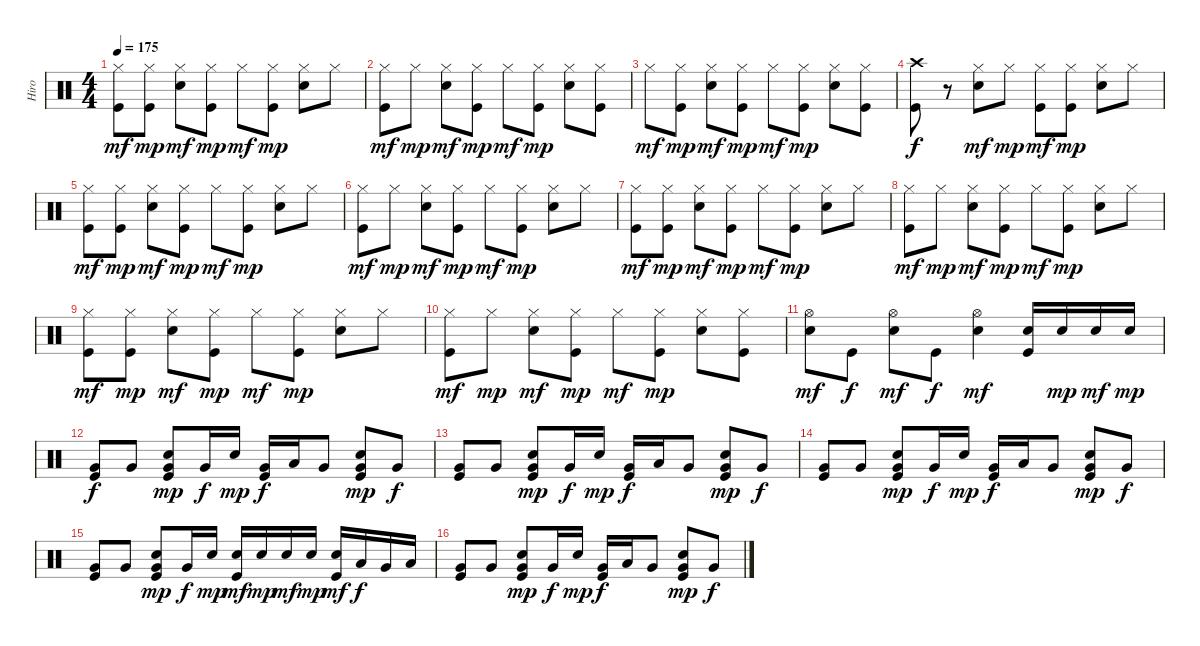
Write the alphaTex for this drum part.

\track ("Hiro" "Hiro") {instrument percussion}
\staff {score}
\articulation defaults
\ts (4 4)
\tempo 175
\clef neutral
\ks c
("Hi-Hat (closed)" "Kick (hit)").8{dy mf} ("Hi-Hat (closed)" "Kick (hit)").8{dy mp} ("Hi-Hat (closed)" "Electric Snare (hit)").8{dy mf} ("Hi-Hat (closed)" "Kick (hit)").8{dy mp} "Hi-Hat (closed)".8{dy mf} ("Hi-Hat (closed)" "Kick (hit)").8{dy mp} ("Hi-Hat (closed)" "Electric Snare (hit)").8 "Hi-Hat (closed)".8 |
("Hi-Hat (closed)" "Kick (hit)").8{dy mf} "Hi-Hat (closed)".8{dy mp} ("Hi-Hat (closed)" "Electric Snare (hit)").8{dy mf} ("Hi-Hat (closed)" "Kick (hit)").8{dy mp} "Hi-Hat (closed)".8{dy mf} ("Hi-Hat (closed)" "Kick (hit)").8{dy mp} ("Hi-Hat (closed)" "Electric Snare (hit)").8 ("Hi-Hat (closed)" "Kick (hit)").8 |
"Hi-Hat (closed)".8{dy mf} ("Hi-Hat (closed)" "Kick (hit)").8{dy mp} ("Hi-Hat (closed)" "Electric Snare (hit)").8{dy mf} ("Hi-Hat (closed)" "Kick (hit)").8{dy mp} "Hi-Hat (closed)".8{dy mf} ("Hi-Hat (closed)" "Kick (hit)").8{dy mp} ("Hi-Hat (closed)" "Electric Snare (hit)").8 ("Hi-Hat (closed)" "Kick (hit)").8 |
("Crash high (hit)" "Kick (hit)").8{dy f} r.8 ("Hi-Hat (closed)" "Electric Snare (hit)").8{dy mf} "Hi-Hat (closed)".8{dy mp} ("Hi-Hat (closed)" "Kick (hit)").8{dy mf} ("Hi-Hat (closed)" "Kick (hit)").8{dy mp} ("Hi-Hat (closed)" "Electric Snare (hit)").8 "Hi-Hat (closed)".8 |
("Hi-Hat (closed)" "Kick (hit)").8{dy mf} ("Hi-Hat (closed)" "Kick (hit)").8{dy mp} ("Hi-Hat (closed)" "Electric Snare (hit)").8{dy mf} ("Hi-Hat (closed)" "Kick (hit)").8{dy mp} "Hi-Hat (closed)".8{dy mf} ("Hi-Hat (closed)" "Kick (hit)").8{dy mp} ("Hi-Hat (closed)" "Electric Snare (hit)").8 "Hi-Hat (closed)".8 |
("Hi-Hat (closed)" "Kick (hit)").8{dy mf} "Hi-Hat (closed)".8{dy mp} ("Hi-Hat (closed)" "Electric Snare (hit)").8{dy mf} ("Hi-Hat (closed)" "Kick (hit)").8{dy mp} "Hi-Hat (closed)".8{dy mf} ("Hi-Hat (closed)" "Kick (hit)").8{dy mp} ("Hi-Hat (closed)" "Electric Snare (hit)").8 "Hi-Hat (closed)".8 |
("Hi-Hat (closed)" "Kick (hit)").8{dy mf} ("Hi-Hat (closed)" "Kick (hit)").8{dy mp} ("Hi-Hat (closed)" "Electric Snare (hit)").8{dy mf} ("Hi-Hat (closed)" "Kick (hit)").8{dy mp} "Hi-Hat (closed)".8{dy mf} ("Hi-Hat (closed)" "Kick (hit)").8{dy mp} ("Hi-Hat (closed)" "Electric Snare (hit)").8 "Hi-Hat (closed)".8 |
("Hi-Hat (closed)" "Kick (hit)").8{dy mf} "Hi-Hat (closed)".8{dy mp} ("Hi-Hat (closed)" "Electric Snare (hit)").8{dy mf} ("Hi-Hat (closed)" "Kick (hit)").8{dy mp} "Hi-Hat (closed)".8{dy mf} ("Hi-Hat (closed)" "Kick (hit)").8{dy mp} ("Hi-Hat (closed)" "Electric Snare (hit)").8 "Hi-Hat (closed)".8 |
("Hi-Hat (closed)" "Kick (hit)").8{dy mf} ("Hi-Hat (closed)" "Kick (hit)").8{dy mp} ("Hi-Hat (closed)" "Electric Snare (hit)").8{dy mf} ("Hi-Hat (closed)" "Kick (hit)").8{dy mp} "Hi-Hat (closed)".8{dy mf} ("Hi-Hat (closed)" "Kick (hit)").8{dy mp} ("Hi-Hat (closed)" "Electric Snare (hit)").8 "Hi-Hat (closed)".8 |
("Hi-Hat (closed)" "Kick (hit)").8{dy mf} "Hi-Hat (closed)".8{dy mp} ("Hi-Hat (closed)" "Electric Snare (hit)").8{dy mf} ("Hi-Hat (closed)" "Kick (hit)").8{dy mp} "Hi-Hat (closed)".8{dy mf} ("Hi-Hat (closed)" "Kick (hit)").8{dy mp} ("Hi-Hat (closed)" "Electric Snare (hit)").8 ("Hi-Hat (closed)" "Kick (hit)").8 |
("Electric Snare (hit)" "Hi-Hat (open)").8{dy mf} "Kick (hit)".8{dy f} ("Electric Snare (hit)" "Hi-Hat (open)").8{dy mf} "Kick (hit)".8{dy f} ("Electric Snare (hit)" "Hi-Hat (open)").4{dy mf} ("Electric Snare (hit)" "Kick (hit)").16 "Electric Snare (hit)".16{dy mp} "Electric Snare (hit)".16{dy mf} "Electric Snare (hit)".16{dy mp} |
("Kick (hit)" "Very Low Tom (hit)").8{dy f} "Very Low Tom (hit)".8 ("Very Low Tom (hit)" "Electric Snare (hit)" "Kick (hit)").8{dy mp} "Very Low Tom (hit)".16{dy f} "Electric Snare (hit)".16{dy mp} ("Very Low Tom (hit)" "Kick (hit)").16{dy f} "Low Tom (hit)".16 "Very Low Tom (hit)".8 ("Very Low Tom (hit)" "Electric Snare (hit)" "Kick (hit)").8{dy mp} "Very Low Tom (hit)".8{dy f} |
("Kick (hit)" "Very Low Tom (hit)").8 "Very Low Tom (hit)".8 ("Very Low Tom (hit)" "Electric Snare (hit)" "Kick (hit)").8{dy mp} "Very Low Tom (hit)".16{dy f} "Electric Snare (hit)".16{dy mp} ("Very Low Tom (hit)" "Kick (hit)").16{dy f} "Low Tom (hit)".16 "Very Low Tom (hit)".8 ("Very Low Tom (hit)" "Electric Snare (hit)" "Kick (hit)").8{dy mp} "Very Low Tom (hit)".8{dy f} |
("Kick (hit)" "Very Low Tom (hit)").8 "Very Low Tom (hit)".8 ("Very Low Tom (hit)" "Electric Snare (hit)" "Kick (hit)").8{dy mp} "Very Low Tom (hit)".16{dy f} "Electric Snare (hit)".16{dy mp} ("Very Low Tom (hit)" "Kick (hit)").16{dy f} "Low Tom (hit)".16 "Very Low Tom (hit)".8 ("Very Low Tom (hit)" "Electric Snare (hit)" "Kick (hit)").8{dy mp} "Very Low Tom (hit)".8{dy f} |
("Kick (hit)" "Very Low Tom (hit)").8 "Very Low Tom (hit)".8 ("Very Low Tom (hit)" "Electric Snare (hit)" "Kick (hit)").8{dy mp} "Very Low Tom (hit)".16{dy f} "Electric Snare (hit)".16{dy mp} ("Electric Snare (hit)" "Kick (hit)").16{dy mf} "Electric Snare (hit)".16{dy mp} "Electric Snare (hit)".16{dy mf} "Electric Snare (hit)".16{dy mp} ("Electric Snare (hit)" "Kick (hit)").16{dy mf} "Low Tom (hit)".16{dy f} "Very Low Tom (hit)".16 "Low Floor Tom (hit)".16 |
("Kick (hit)" "Very Low Tom (hit)").8 "Very Low Tom (hit)".8 ("Very Low Tom (hit)" "Electric Snare (hit)" "Kick (hit)").8{dy mp} "Very Low Tom (hit)".16{dy f} "Electric Snare (hit)".16{dy mp} ("Very Low Tom (hit)" "Kick (hit)").16{dy f} "Low Tom (hit)".16 "Very Low Tom (hit)".8 ("Very Low Tom (hit)" "Electric Snare (hit)" "Kick (hit)").8{dy mp} "Very Low Tom (hit)".8{dy f}
